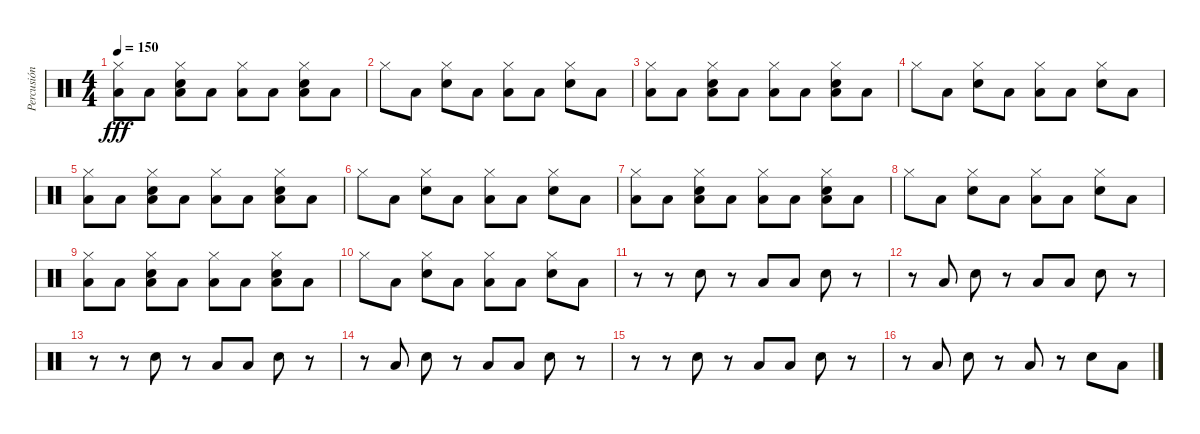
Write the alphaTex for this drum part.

\track ("Percusión" "Percusión") {instrument percussion}
\staff {score}
\articulation defaults
\ts (4 4)
\tempo 150
\clef neutral
\ks c
("Hi-Hat (closed)" "Low Tom (hit)").8{dy fff} "Low Tom (hit)".8 ("Low Tom (hit)" "Hi-Hat (closed)" "Snare (hit) 2").8 "Low Tom (hit)".8 ("Hi-Hat (closed)" "Low Tom (hit)").8 "Low Tom (hit)".8 ("Low Tom (hit)" "Hi-Hat (closed)" "Snare (hit) 2").8 "Low Tom (hit)".8 |
"Hi-Hat (closed)".8 "Low Tom (hit)".8 ("Hi-Hat (closed)" "Snare (hit) 2").8 "Low Tom (hit)".8 ("Hi-Hat (closed)" "Low Tom (hit)").8 "Low Tom (hit)".8 ("Hi-Hat (closed)" "Snare (hit) 2").8 "Low Tom (hit)".8 |
("Hi-Hat (closed)" "Low Tom (hit)").8 "Low Tom (hit)".8 ("Low Tom (hit)" "Hi-Hat (closed)" "Snare (hit) 2").8 "Low Tom (hit)".8 ("Hi-Hat (closed)" "Low Tom (hit)").8 "Low Tom (hit)".8 ("Low Tom (hit)" "Hi-Hat (closed)" "Snare (hit) 2").8 "Low Tom (hit)".8 |
"Hi-Hat (closed)".8 "Low Tom (hit)".8 ("Hi-Hat (closed)" "Snare (hit) 2").8 "Low Tom (hit)".8 ("Hi-Hat (closed)" "Low Tom (hit)").8 "Low Tom (hit)".8 ("Hi-Hat (closed)" "Snare (hit) 2").8 "Low Tom (hit)".8 |
("Hi-Hat (closed)" "Low Tom (hit)").8 "Low Tom (hit)".8 ("Low Tom (hit)" "Hi-Hat (closed)" "Snare (hit) 2").8 "Low Tom (hit)".8 ("Hi-Hat (closed)" "Low Tom (hit)").8 "Low Tom (hit)".8 ("Low Tom (hit)" "Hi-Hat (closed)" "Snare (hit) 2").8 "Low Tom (hit)".8 |
"Hi-Hat (closed)".8 "Low Tom (hit)".8 ("Hi-Hat (closed)" "Snare (hit) 2").8 "Low Tom (hit)".8 ("Hi-Hat (closed)" "Low Tom (hit)").8 "Low Tom (hit)".8 ("Hi-Hat (closed)" "Snare (hit) 2").8 "Low Tom (hit)".8 |
("Hi-Hat (closed)" "Low Tom (hit)").8 "Low Tom (hit)".8 ("Low Tom (hit)" "Hi-Hat (closed)" "Snare (hit) 2").8 "Low Tom (hit)".8 ("Hi-Hat (closed)" "Low Tom (hit)").8 "Low Tom (hit)".8 ("Low Tom (hit)" "Hi-Hat (closed)" "Snare (hit) 2").8 "Low Tom (hit)".8 |
"Hi-Hat (closed)".8 "Low Tom (hit)".8 ("Hi-Hat (closed)" "Snare (hit) 2").8 "Low Tom (hit)".8 ("Hi-Hat (closed)" "Low Tom (hit)").8 "Low Tom (hit)".8 ("Hi-Hat (closed)" "Snare (hit) 2").8 "Low Tom (hit)".8 |
("Hi-Hat (closed)" "Low Tom (hit)").8 "Low Tom (hit)".8 ("Low Tom (hit)" "Hi-Hat (closed)" "Snare (hit) 2").8 "Low Tom (hit)".8 ("Hi-Hat (closed)" "Low Tom (hit)").8 "Low Tom (hit)".8 ("Low Tom (hit)" "Hi-Hat (closed)" "Snare (hit) 2").8 "Low Tom (hit)".8 |
"Hi-Hat (closed)".8 "Low Tom (hit)".8 ("Hi-Hat (closed)" "Snare (hit) 2").8 "Low Tom (hit)".8 ("Hi-Hat (closed)" "Low Tom (hit)").8 "Low Tom (hit)".8 ("Hi-Hat (closed)" "Snare (hit) 2").8 "Low Tom (hit)".8 |
r.8 r.8 "Snare (hit) 2".8 r.8 "Low Tom (hit)".8 "Low Tom (hit)".8 "Snare (hit) 2".8 r.8 |
r.8 "Low Tom (hit)".8 "Snare (hit) 2".8 r.8 "Low Tom (hit)".8 "Low Tom (hit)".8 "Snare (hit) 2".8 r.8 |
r.8 r.8 "Snare (hit) 2".8 r.8 "Low Tom (hit)".8 "Low Tom (hit)".8 "Snare (hit) 2".8 r.8 |
r.8 "Low Tom (hit)".8 "Snare (hit) 2".8 r.8 "Low Tom (hit)".8 "Low Tom (hit)".8 "Snare (hit) 2".8 r.8 |
r.8 r.8 "Snare (hit) 2".8 r.8 "Low Tom (hit)".8 "Low Tom (hit)".8 "Snare (hit) 2".8 r.8 |
r.8 "Low Tom (hit)".8 "Snare (hit) 2".8 r.8 "Low Tom (hit)".8 r.8 "Snare (hit) 2".8 "Low Tom (hit)".8
